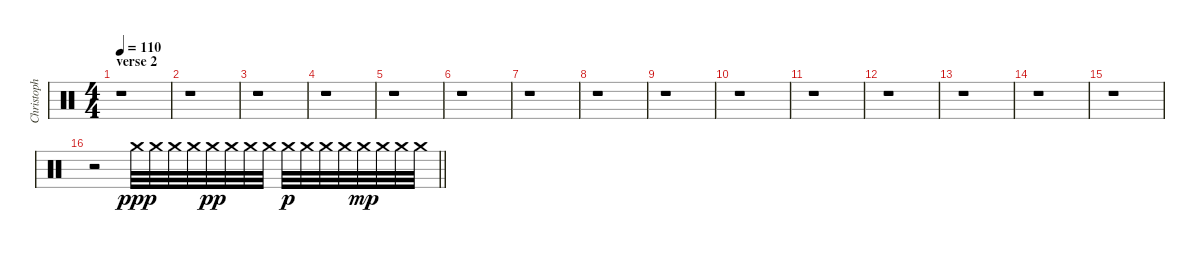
\track ("Christoph" "Christoph") {instrument percussion}
\staff {score}
\articulation defaults
\ts (4 4)
\section ("" "verse 2")
\tempo 110
\clef neutral
\ks c
r.1{dy mp} |
r.1 |
r.1 |
r.1 |
r.1 |
r.1 |
r.1 |
r.1 |
r.1 |
r.1 |
r.1 |
r.1 |
r.1 |
r.1 |
r.1 |
\barLineRight lightlight
r.2 "Crash medium (hit)".32{dy ppp} "Crash medium (hit)".32 "Crash medium (hit)".32 "Crash medium (hit)".32 "Crash medium (hit)".32{dy pp} "Crash medium (hit)".32 "Crash medium (hit)".32 "Crash medium (hit)".32 "Crash medium (hit)".32{dy p} "Crash medium (hit)".32 "Crash medium (hit)".32 "Crash medium (hit)".32 "Crash medium (hit)".32{dy mp} "Crash medium (hit)".32 "Crash medium (hit)".32 "Crash medium (hit)".32
